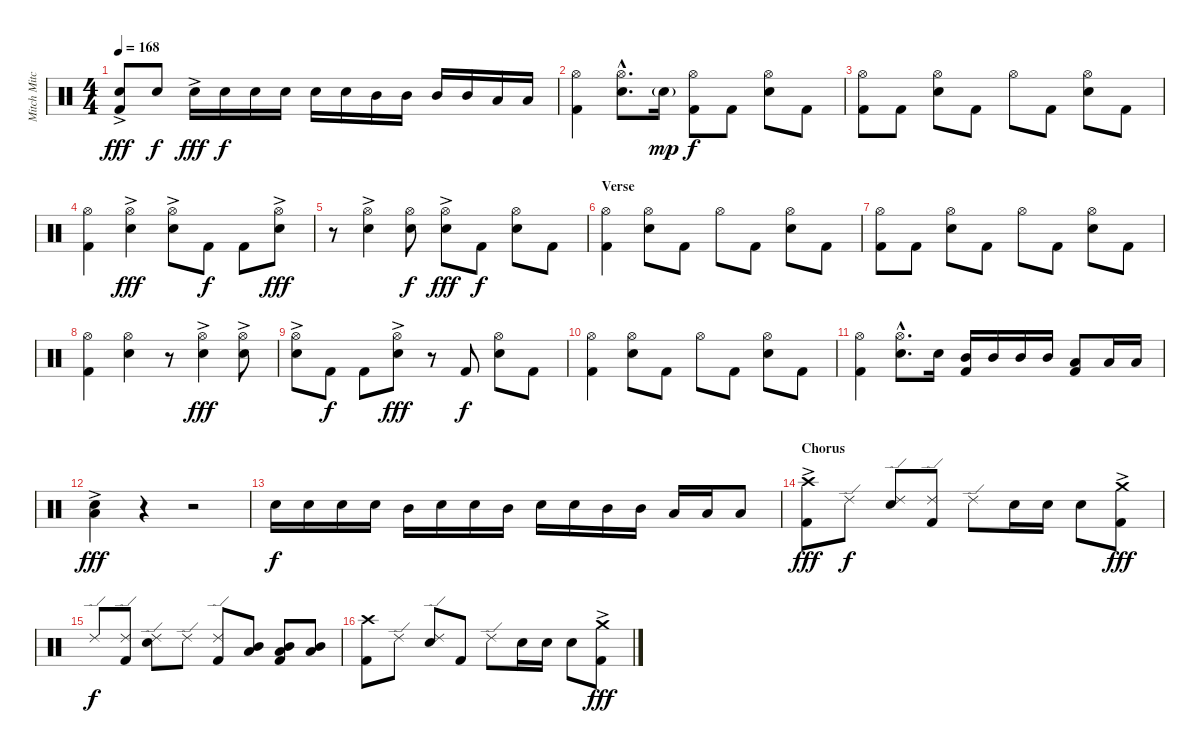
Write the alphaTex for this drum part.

\track ("Mitch Mitchell" "Mitch Mitc") {instrument percussion}
\staff {score}
\articulation defaults
\ts (4 4)
\tempo 168
\clef neutral
\ks c
("Snare (hit) 2"{ac} "Kick (hit) 2"{ac}).8{dy fff} "Snare (hit) 2".8{dy f} "Snare (hit) 2"{ac}.16{dy fff} "Snare (hit) 2".16{dy f} "Snare (hit) 2".16 "Snare (hit) 2".16 "Snare (hit) 2".16 "Snare (hit) 2".16 "Mid Tom (hit)".16 "Mid Tom (hit)".16 "Mid Tom (hit)".16 "Mid Tom (hit)".16 "Low Tom (hit)".16 "Low Tom (hit)".16 |
("Hi-Hat (open)" "Kick (hit) 2").4 ("Hi-Hat (open)"{hac} "Snare (hit) 2"{hac}).8{d} "Snare (hit) 2"{g}.16{dy mp} ("Hi-Hat (open)" "Kick (hit) 2").8{dy f} "Kick (hit) 2".8 ("Hi-Hat (open)" "Snare (hit) 2").8 "Kick (hit) 2".8 |
("Hi-Hat (open)" "Kick (hit) 2").8 "Kick (hit) 2".8 ("Hi-Hat (open)" "Snare (hit) 2").8 "Kick (hit) 2".8 "Hi-Hat (open)".8 "Kick (hit) 2".8 ("Hi-Hat (open)" "Snare (hit) 2").8 "Kick (hit) 2".8 |
("Hi-Hat (open)" "Kick (hit) 2").4 ("Hi-Hat (open)"{ac} "Snare (hit) 2"{ac}).4{dy fff} ("Hi-Hat (open)"{ac} "Snare (hit) 2"{ac}).8 "Kick (hit) 2".8{dy f} "Kick (hit) 2".8 ("Hi-Hat (open)"{ac} "Snare (hit) 2"{ac}).8{dy fff} |
r.8 ("Hi-Hat (open)"{ac} "Snare (hit) 2"{ac}).4 ("Hi-Hat (open)" "Snare (hit) 2").8{dy f} ("Hi-Hat (open)"{ac} "Snare (hit) 2"{ac}).8{dy fff} "Kick (hit) 2".8{dy f} ("Hi-Hat (open)" "Snare (hit) 2").8 "Kick (hit) 2".8 |
\section ("" "Verse")
("Hi-Hat (open)" "Kick (hit) 2").4 ("Hi-Hat (open)" "Snare (hit) 2").8 "Kick (hit) 2".8 "Hi-Hat (open)".8 "Kick (hit) 2".8 ("Hi-Hat (open)" "Snare (hit) 2").8 "Kick (hit) 2".8 |
("Hi-Hat (open)" "Kick (hit) 2").8 "Kick (hit) 2".8 ("Hi-Hat (open)" "Snare (hit) 2").8 "Kick (hit) 2".8 "Hi-Hat (open)".8 "Kick (hit) 2".8 ("Hi-Hat (open)" "Snare (hit) 2").8 "Kick (hit) 2".8 |
("Hi-Hat (open)" "Kick (hit) 2").4 ("Hi-Hat (open)" "Snare (hit) 2").4 r.8 ("Hi-Hat (open)"{ac} "Snare (hit) 2"{ac}).4{dy fff} ("Hi-Hat (open)"{ac} "Snare (hit) 2"{ac}).8 |
("Hi-Hat (open)"{ac} "Snare (hit) 2"{ac}).8 "Kick (hit) 2".8{dy f} "Kick (hit) 2".8 ("Hi-Hat (open)"{ac} "Snare (hit) 2"{ac}).8{dy fff} r.8 "Kick (hit) 2".8{dy f} ("Hi-Hat (open)" "Snare (hit) 2").8 "Kick (hit) 2".8 |
("Hi-Hat (open)" "Kick (hit) 2").4 ("Hi-Hat (open)" "Snare (hit) 2").8 "Kick (hit) 2".8 "Hi-Hat (open)".8 "Kick (hit) 2".8 ("Hi-Hat (open)" "Snare (hit) 2").8 "Kick (hit) 2".8 |
("Hi-Hat (open)" "Kick (hit) 2").4 ("Hi-Hat (open)"{hac} "Snare (hit) 2"{hac}).8{d} "Snare (hit) 2".16 ("Mid Tom (hit)" "Kick (hit) 2").16 "Mid Tom (hit)".16 "Mid Tom (hit)".16 "Mid Tom (hit)".16 ("Low Tom (hit)" "Kick (hit) 2").8 "Low Tom (hit)".16 "Low Tom (hit)".16 |
("Snare (hit) 2"{ac} "Low Tom (hit)"{ac}).4{dy fff} r.4 r.2 |
"Snare (hit) 2".16{dy f} "Snare (hit) 2".16 "Snare (hit) 2".16 "Snare (hit) 2".16 "Mid Tom (hit)".16 "Snare (hit) 2".16 "Snare (hit) 2".16 "Mid Tom (hit)".16 "Snare (hit) 2".16 "Snare (hit) 2".16 "Mid Tom (hit)".16 "Mid Tom (hit)".16 "Low Tom (hit)".16 "Low Tom (hit)".16 "Low Tom (hit)".8 |
\section ("" "Chorus")
("Crash high (hit)"{ac} "Kick (hit) 2"{ac}).8{dy fff} "Ride (edge) 2".8{dy f} ("Ride (edge) 2" "Snare (hit) 2").8 ("Ride (edge) 2" "Kick (hit) 2").8 "Ride (edge) 2".8 "Snare (hit) 2".16 "Snare (hit) 2".16 "Snare (hit) 2".8 ("Crash medium (hit)"{ac} "Kick (hit) 2"{ac}).8{dy fff} |
"Ride (edge) 2".8{dy f} ("Ride (edge) 2" "Kick (hit) 2").8 ("Ride (edge) 2" "Snare (hit) 2").8 "Ride (edge) 2".8 ("Ride (edge) 2" "Kick (hit) 2").8 ("Mid Tom (hit)" "Low Tom (hit)").8 ("Mid Tom (hit)" "Low Tom (hit)" "Kick (hit) 2").8 ("Mid Tom (hit)" "Low Tom (hit)").8 |
("Crash high (hit)" "Kick (hit) 2").8 "Ride (edge) 2".8 ("Ride (edge) 2" "Snare (hit) 2").8 "Kick (hit) 2".8 "Ride (edge) 2".8 "Snare (hit) 2".16 "Snare (hit) 2".16 "Snare (hit) 2".8 ("Crash medium (hit)"{ac} "Kick (hit) 2"{ac}).8{dy fff}
